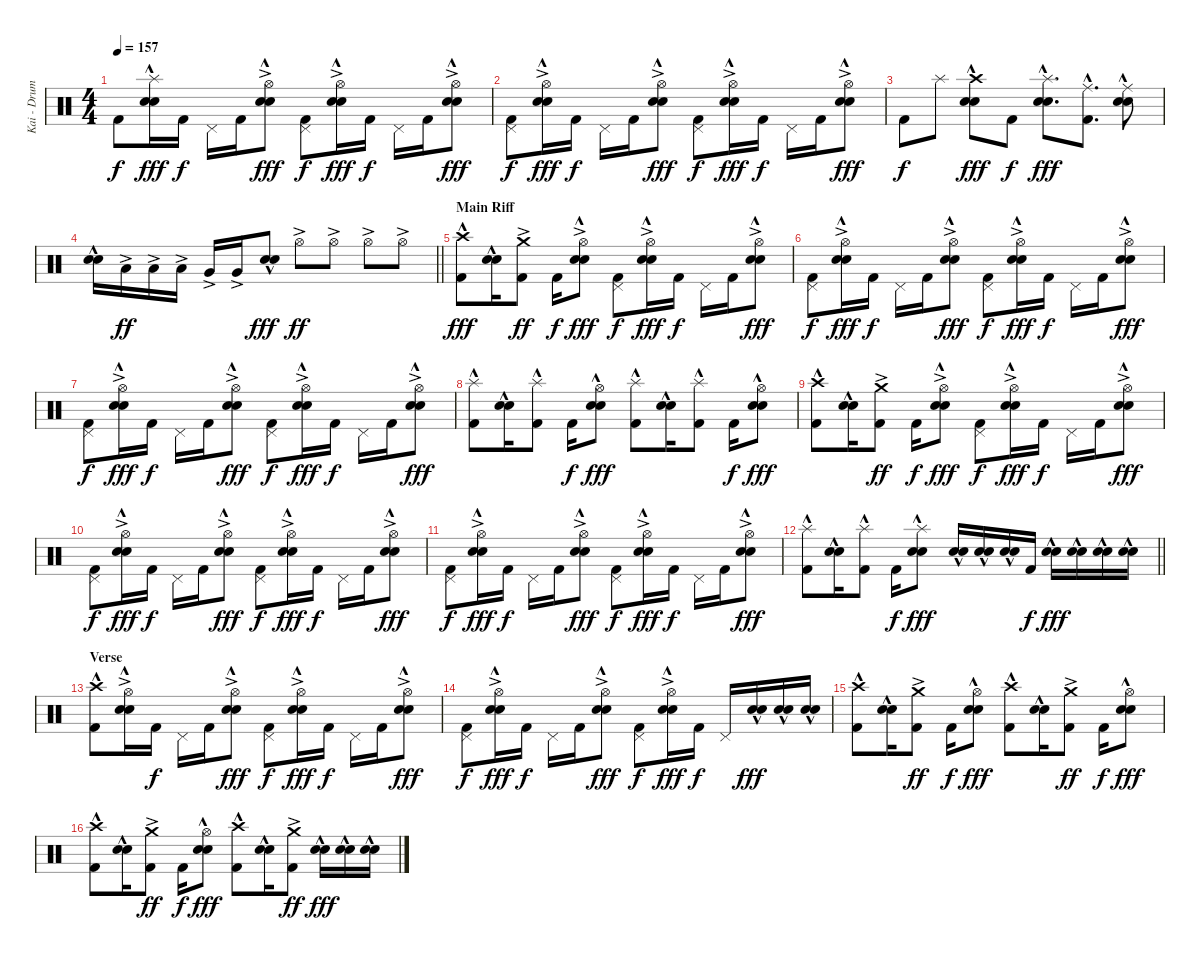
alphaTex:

\track ("Kai - Drums" "Kai - Drum") {instrument percussion}
\staff {score}
\articulation defaults
\ts (4 4)
\tempo 157
\clef neutral
\ks c "Kick (hit) 2".8{dy f}
("Splash (hit)"{hac} "Electric Snare (hit)"{hac} "Snare (hit) 2").16{dy fff} "Kick (hit) 2".16{dy f} "Pedal Hi-Hat (hit)".16 "Kick (hit) 2".16 ("Hi-Hat (open)"{ac} "Electric Snare (hit)"{hac} "Snare (hit) 2").8{dy fff} ("Pedal Hi-Hat (hit)" "Kick (hit) 2").8{dy f} ("Hi-Hat (open)"{ac} "Electric Snare (hit)"{hac} "Snare (hit) 2").16{dy fff} "Kick (hit) 2".16{dy f} "Pedal Hi-Hat (hit)".16 "Kick (hit) 2".16 ("Hi-Hat (open)"{ac} "Electric Snare (hit)"{hac} "Snare (hit) 2").8{dy fff} |
("Pedal Hi-Hat (hit)" "Kick (hit) 2").8{dy f} ("Hi-Hat (open)"{ac} "Electric Snare (hit)"{hac} "Snare (hit) 2").16{dy fff} "Kick (hit) 2".16{dy f} "Pedal Hi-Hat (hit)".16 "Kick (hit) 2".16 ("Hi-Hat (open)"{ac} "Electric Snare (hit)"{hac} "Snare (hit) 2").8{dy fff} ("Pedal Hi-Hat (hit)" "Kick (hit) 2").8{dy f} ("Hi-Hat (open)"{ac} "Electric Snare (hit)"{hac} "Snare (hit) 2").16{dy fff} "Kick (hit) 2".16{dy f} "Pedal Hi-Hat (hit)".16 "Kick (hit) 2".16 ("Hi-Hat (open)"{ac} "Electric Snare (hit)"{hac} "Snare (hit) 2").8{dy fff} |
"Kick (hit) 2".8{dy f} "Splash (hit)".8 ("Crash high (hit)"{hac} "Electric Snare (hit)"{hac} "Snare (hit) 2").8{dy fff} "Kick (hit) 2".8{dy f} ("Splash (hit)"{hac} "Electric Snare (hit)"{hac} "Snare (hit) 2").8{d dy fff} ("Ride (middle)"{hac} "Kick (hit) 2").8{d} ("Ride (middle)" "Electric Snare (hit)"{hac} "Snare (hit) 2").8 |
\barLineRight lightlight
("Electric Snare (hit)"{hac} "Snare (hit) 2").16 "Low Tom (hit)"{ac}.16{dy ff} "Low Tom (hit)"{ac}.16 "Low Tom (hit)"{ac}.16 "Very Low Tom (hit)"{ac}.16 "Very Low Tom (hit)"{ac}.16 ("Electric Snare (hit)"{hac} "Snare (hit) 2").8{dy fff} "Hi-Hat (open)"{ac}.8{dy ff} "Hi-Hat (open)"{ac}.8 "Hi-Hat (open)"{ac}.8 "Hi-Hat (open)"{ac}.8 |
\section ("" "Main Riff")
("Crash high (hit)"{hac} "Kick (hit) 2").8{dy fff} ("Electric Snare (hit)"{hac} "Snare (hit) 2").16 ("Crash medium (hit)"{ac} "Kick (hit) 2").8{dy ff} "Kick (hit) 2".16{dy f} ("Hi-Hat (open)"{ac} "Electric Snare (hit)"{hac} "Snare (hit) 2").8{dy fff} ("Pedal Hi-Hat (hit)" "Kick (hit) 2").8{dy f} ("Hi-Hat (open)"{ac} "Electric Snare (hit)"{hac} "Snare (hit) 2").16{dy fff} "Kick (hit) 2".16{dy f} "Pedal Hi-Hat (hit)".16 "Kick (hit) 2".16 ("Hi-Hat (open)"{ac} "Electric Snare (hit)"{hac} "Snare (hit) 2").8{dy fff} |
("Pedal Hi-Hat (hit)" "Kick (hit) 2").8{dy f} ("Hi-Hat (open)"{ac} "Electric Snare (hit)"{hac} "Snare (hit) 2").16{dy fff} "Kick (hit) 2".16{dy f} "Pedal Hi-Hat (hit)".16 "Kick (hit) 2".16 ("Hi-Hat (open)"{ac} "Electric Snare (hit)"{hac} "Snare (hit) 2").8{dy fff} ("Pedal Hi-Hat (hit)" "Kick (hit) 2").8{dy f} ("Hi-Hat (open)"{ac} "Electric Snare (hit)"{hac} "Snare (hit) 2").16{dy fff} "Kick (hit) 2".16{dy f} "Pedal Hi-Hat (hit)".16 "Kick (hit) 2".16 ("Hi-Hat (open)"{ac} "Electric Snare (hit)"{hac} "Snare (hit) 2").8{dy fff} |
("Pedal Hi-Hat (hit)" "Kick (hit) 2").8{dy f} ("Hi-Hat (open)"{ac} "Electric Snare (hit)"{hac} "Snare (hit) 2").16{dy fff} "Kick (hit) 2".16{dy f} "Pedal Hi-Hat (hit)".16 "Kick (hit) 2".16 ("Hi-Hat (open)"{ac} "Electric Snare (hit)"{hac} "Snare (hit) 2").8{dy fff} ("Pedal Hi-Hat (hit)" "Kick (hit) 2").8{dy f} ("Hi-Hat (open)"{ac} "Electric Snare (hit)"{hac} "Snare (hit) 2").16{dy fff} "Kick (hit) 2".16{dy f} "Pedal Hi-Hat (hit)".16 "Kick (hit) 2".16 ("Hi-Hat (open)"{ac} "Electric Snare (hit)"{hac} "Snare (hit) 2").8{dy fff} |
("Splash (hit)"{hac} "Kick (hit) 2").8 ("Electric Snare (hit)"{hac} "Snare (hit) 2").16 ("Splash (hit)"{hac} "Kick (hit) 2").8 "Kick (hit) 2".16{dy f} ("Hi-Hat (open)" "Electric Snare (hit)"{hac} "Snare (hit) 2").8{dy fff} ("Splash (hit)"{hac} "Kick (hit) 2").8 ("Electric Snare (hit)"{hac} "Snare (hit) 2").16 ("Splash (hit)"{hac} "Kick (hit) 2").8 "Kick (hit) 2".16{dy f} ("Hi-Hat (open)" "Electric Snare (hit)"{hac} "Snare (hit) 2").8{dy fff} |
("Crash high (hit)"{hac} "Kick (hit) 2").8 ("Electric Snare (hit)"{hac} "Snare (hit) 2").16 ("Crash medium (hit)"{ac} "Kick (hit) 2").8{dy ff} "Kick (hit) 2".16{dy f} ("Hi-Hat (open)"{ac} "Electric Snare (hit)"{hac} "Snare (hit) 2").8{dy fff} ("Pedal Hi-Hat (hit)" "Kick (hit) 2").8{dy f} ("Hi-Hat (open)"{ac} "Electric Snare (hit)"{hac} "Snare (hit) 2").16{dy fff} "Kick (hit) 2".16{dy f} "Pedal Hi-Hat (hit)".16 "Kick (hit) 2".16 ("Hi-Hat (open)"{ac} "Electric Snare (hit)"{hac} "Snare (hit) 2").8{dy fff} |
("Pedal Hi-Hat (hit)" "Kick (hit) 2").8{dy f} ("Hi-Hat (open)"{ac} "Electric Snare (hit)"{hac} "Snare (hit) 2").16{dy fff} "Kick (hit) 2".16{dy f} "Pedal Hi-Hat (hit)".16 "Kick (hit) 2".16 ("Hi-Hat (open)"{ac} "Electric Snare (hit)"{hac} "Snare (hit) 2").8{dy fff} ("Pedal Hi-Hat (hit)" "Kick (hit) 2").8{dy f} ("Hi-Hat (open)"{ac} "Electric Snare (hit)"{hac} "Snare (hit) 2").16{dy fff} "Kick (hit) 2".16{dy f} "Pedal Hi-Hat (hit)".16 "Kick (hit) 2".16 ("Hi-Hat (open)"{ac} "Electric Snare (hit)"{hac} "Snare (hit) 2").8{dy fff} |
("Pedal Hi-Hat (hit)" "Kick (hit) 2").8{dy f} ("Hi-Hat (open)"{ac} "Electric Snare (hit)"{hac} "Snare (hit) 2").16{dy fff} "Kick (hit) 2".16{dy f} "Pedal Hi-Hat (hit)".16 "Kick (hit) 2".16 ("Hi-Hat (open)"{ac} "Electric Snare (hit)"{hac} "Snare (hit) 2").8{dy fff} ("Pedal Hi-Hat (hit)" "Kick (hit) 2").8{dy f} ("Hi-Hat (open)"{ac} "Electric Snare (hit)"{hac} "Snare (hit) 2").16{dy fff} "Kick (hit) 2".16{dy f} "Pedal Hi-Hat (hit)".16 "Kick (hit) 2".16 ("Hi-Hat (open)"{ac} "Electric Snare (hit)"{hac} "Snare (hit) 2").8{dy fff} |
\barLineRight lightlight
("Splash (hit)"{hac} "Kick (hit) 2").8 ("Electric Snare (hit)"{hac} "Snare (hit) 2").16 ("Splash (hit)"{hac} "Kick (hit) 2").8 "Kick (hit) 2".16{dy f} ("Splash (hit)"{hac} "Electric Snare (hit)"{hac} "Snare (hit) 2").8{dy fff} ("Electric Snare (hit)"{hac} "Snare (hit) 2").16 ("Electric Snare (hit)"{hac} "Snare (hit) 2").16 ("Electric Snare (hit)"{hac} "Snare (hit) 2").16 "Kick (hit) 2".16{dy f} ("Electric Snare (hit)"{hac} "Snare (hit) 2").16{dy fff} ("Electric Snare (hit)"{hac} "Snare (hit) 2").16 ("Electric Snare (hit)"{hac} "Snare (hit) 2").16 ("Electric Snare (hit)"{hac} "Snare (hit) 2").16 |
\section ("" "Verse")
("Crash high (hit)"{hac} "Kick (hit) 2").8 ("Hi-Hat (open)"{ac} "Electric Snare (hit)"{hac} "Snare (hit) 2").16 "Kick (hit) 2".16{dy f} "Pedal Hi-Hat (hit)".16 "Kick (hit) 2".16 ("Hi-Hat (open)"{ac} "Electric Snare (hit)"{hac} "Snare (hit) 2").8{dy fff} ("Pedal Hi-Hat (hit)" "Kick (hit) 2").8{dy f} ("Hi-Hat (open)"{ac} "Electric Snare (hit)"{hac} "Snare (hit) 2").16{dy fff} "Kick (hit) 2".16{dy f} "Pedal Hi-Hat (hit)".16 "Kick (hit) 2".16 ("Hi-Hat (open)"{ac} "Electric Snare (hit)"{hac} "Snare (hit) 2").8{dy fff} |
("Pedal Hi-Hat (hit)" "Kick (hit) 2").8{dy f} ("Hi-Hat (open)"{ac} "Electric Snare (hit)"{hac} "Snare (hit) 2").16{dy fff} "Kick (hit) 2".16{dy f} "Pedal Hi-Hat (hit)".16 "Kick (hit) 2".16 ("Hi-Hat (open)"{ac} "Electric Snare (hit)"{hac} "Snare (hit) 2").8{dy fff} ("Pedal Hi-Hat (hit)" "Kick (hit) 2").8{dy f} ("Hi-Hat (open)"{ac} "Electric Snare (hit)"{hac} "Snare (hit) 2").16{dy fff} "Kick (hit) 2".16{dy f} "Pedal Hi-Hat (hit)".16 ("Electric Snare (hit)"{hac} "Snare (hit) 2").16{dy fff} ("Electric Snare (hit)"{hac} "Snare (hit) 2").16 ("Electric Snare (hit)"{hac} "Snare (hit) 2").16 |
("Crash high (hit)"{hac} "Kick (hit) 2").8 ("Electric Snare (hit)"{hac} "Snare (hit) 2").16 ("Crash medium (hit)"{ac} "Kick (hit) 2").8{dy ff} "Kick (hit) 2".16{dy f} ("Hi-Hat (open)" "Electric Snare (hit)"{hac} "Snare (hit) 2").8{dy fff} ("Crash high (hit)"{hac} "Kick (hit) 2").8 ("Electric Snare (hit)"{hac} "Snare (hit) 2").16 ("Crash medium (hit)"{ac} "Kick (hit) 2").8{dy ff} "Kick (hit) 2".16{dy f} ("Hi-Hat (open)" "Electric Snare (hit)"{hac} "Snare (hit) 2").8{dy fff} |
("Crash high (hit)"{hac} "Kick (hit) 2").8 ("Electric Snare (hit)"{hac} "Snare (hit) 2").16 ("Crash medium (hit)"{ac} "Kick (hit) 2").8{dy ff} "Kick (hit) 2".16{dy f} ("Hi-Hat (open)" "Electric Snare (hit)"{hac} "Snare (hit) 2").8{dy fff} ("Crash high (hit)"{hac} "Kick (hit) 2").8 ("Electric Snare (hit)"{hac} "Snare (hit) 2").16 ("Crash medium (hit)"{ac} "Kick (hit) 2").8{dy ff} ("Electric Snare (hit)"{hac} "Snare (hit) 2").16{dy fff} ("Electric Snare (hit)"{hac} "Snare (hit) 2").16 ("Electric Snare (hit)"{hac} "Snare (hit) 2").16
